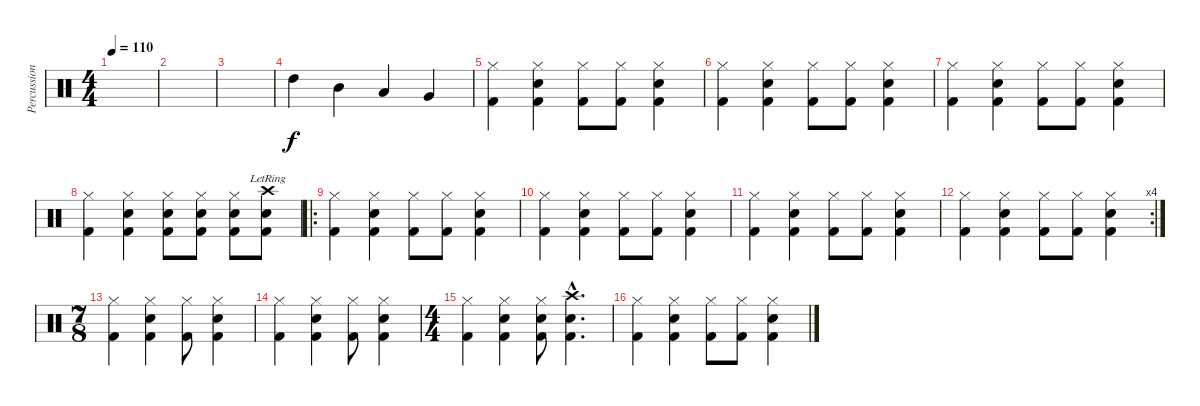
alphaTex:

\track ("Percussion" "Percussion") {instrument percussion}
\staff {score}
\articulation defaults
\ts (4 4)
\tempo 110
\clef neutral
\ks c
|
|
|
"High Tom (hit)".4 "Mid Tom (hit)".4 "Low Tom (hit)".4 "Very Low Tom (hit)".4 |
("Hi-Hat (closed)" "Kick (hit) 2").4 ("Hi-Hat (closed)" "Snare (hit) 2" "Kick (hit) 2").4 ("Hi-Hat (closed)" "Kick (hit) 2").8 ("Hi-Hat (closed)" "Kick (hit) 2").8 ("Hi-Hat (closed)" "Snare (hit) 2" "Kick (hit) 2").4 |
("Hi-Hat (closed)" "Kick (hit) 2").4 ("Hi-Hat (closed)" "Snare (hit) 2" "Kick (hit) 2").4 ("Hi-Hat (closed)" "Kick (hit) 2").8 ("Hi-Hat (closed)" "Kick (hit) 2").8 ("Hi-Hat (closed)" "Snare (hit) 2" "Kick (hit) 2").4 |
("Hi-Hat (closed)" "Kick (hit) 2").4 ("Hi-Hat (closed)" "Snare (hit) 2" "Kick (hit) 2").4 ("Hi-Hat (closed)" "Kick (hit) 2").8 ("Hi-Hat (closed)" "Kick (hit) 2").8 ("Hi-Hat (closed)" "Snare (hit) 2" "Kick (hit) 2").4 |
("Hi-Hat (closed)" "Kick (hit) 2").4 ("Hi-Hat (closed)" "Snare (hit) 2" "Kick (hit) 2").4 ("Hi-Hat (closed)" "Snare (hit) 2" "Kick (hit) 2").8 ("Hi-Hat (closed)" "Snare (hit) 2" "Kick (hit) 2").8 ("Hi-Hat (closed)" "Snare (hit) 2" "Kick (hit) 2").8 ("Crash high (hit)"{lr} "Electric Snare (hit)" "Kick (hit) 2").8 |
\ro
("Hi-Hat (closed)" "Kick (hit) 2").4 ("Hi-Hat (closed)" "Snare (hit) 2" "Kick (hit) 2").4 ("Hi-Hat (closed)" "Kick (hit) 2").8 ("Hi-Hat (closed)" "Kick (hit) 2").8 ("Hi-Hat (closed)" "Snare (hit) 2" "Kick (hit) 2").4 |
("Hi-Hat (closed)" "Kick (hit) 2").4 ("Hi-Hat (closed)" "Snare (hit) 2" "Kick (hit) 2").4 ("Hi-Hat (closed)" "Kick (hit) 2").8 ("Hi-Hat (closed)" "Kick (hit) 2").8 ("Hi-Hat (closed)" "Snare (hit) 2" "Kick (hit) 2").4 |
("Hi-Hat (closed)" "Kick (hit) 2").4 ("Hi-Hat (closed)" "Snare (hit) 2" "Kick (hit) 2").4 ("Hi-Hat (closed)" "Kick (hit) 2").8 ("Hi-Hat (closed)" "Kick (hit) 2").8 ("Hi-Hat (closed)" "Snare (hit) 2" "Kick (hit) 2").4 |
\rc 4
("Hi-Hat (closed)" "Kick (hit) 2").4 ("Hi-Hat (closed)" "Snare (hit) 2" "Kick (hit) 2").4 ("Hi-Hat (closed)" "Kick (hit) 2").8 ("Hi-Hat (closed)" "Kick (hit) 2").8 ("Hi-Hat (closed)" "Snare (hit) 2" "Kick (hit) 2").4 |
\ts (7 8)
("Hi-Hat (closed)" "Kick (hit) 2").4 ("Hi-Hat (closed)" "Snare (hit) 2" "Kick (hit) 2").4 ("Hi-Hat (closed)" "Kick (hit) 2").8 ("Hi-Hat (closed)" "Snare (hit) 2" "Kick (hit) 2").4 |
("Hi-Hat (closed)" "Kick (hit) 2").4 ("Hi-Hat (closed)" "Snare (hit) 2" "Kick (hit) 2").4 ("Hi-Hat (closed)" "Kick (hit) 2").8 ("Hi-Hat (closed)" "Snare (hit) 2" "Kick (hit) 2").4 |
\ts (4 4)
("Hi-Hat (closed)" "Kick (hit) 2").4 ("Hi-Hat (closed)" "Snare (hit) 2" "Kick (hit) 2").4 ("Hi-Hat (closed)" "Snare (hit) 2" "Kick (hit) 2").8 ("Crash high (hit)"{hac} "Snare (hit) 2"{hac} "Kick (hit) 2"{hac}).4{d} |
("Hi-Hat (closed)" "Kick (hit) 2").4 ("Hi-Hat (closed)" "Snare (hit) 2" "Kick (hit) 2").4 ("Hi-Hat (closed)" "Kick (hit) 2").8 ("Hi-Hat (closed)" "Kick (hit) 2").8 ("Hi-Hat (closed)" "Snare (hit) 2" "Kick (hit) 2").4
